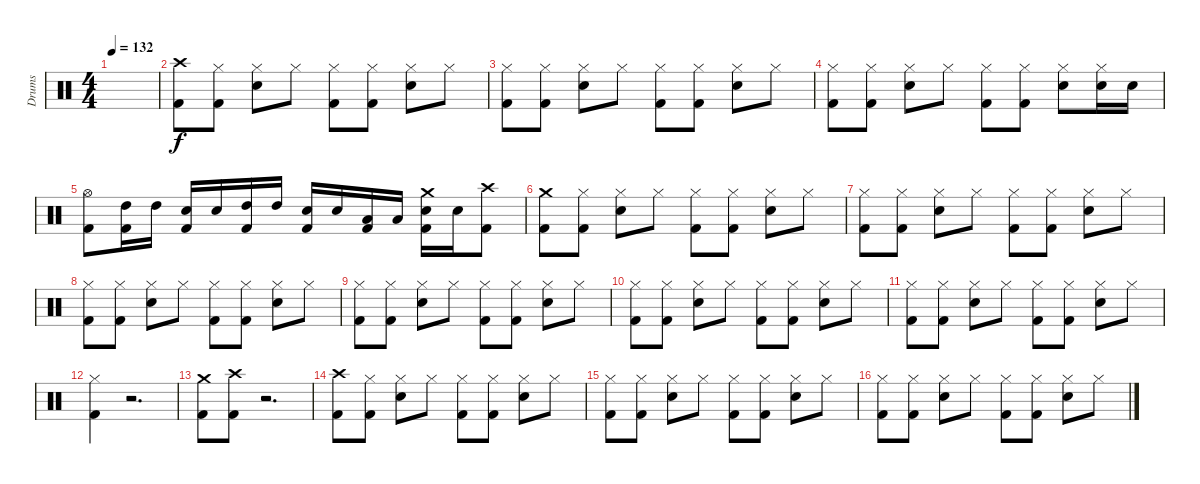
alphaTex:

\track ("Drums" "Drums") {instrument percussion}
\staff {score}
\articulation defaults
\ts (4 4)
\tempo 132
\clef neutral
\ks c
|
("Kick (hit) 2" "Crash high (hit)").8 ("Kick (hit) 2" "Hi-Hat (closed)").8 ("Snare (hit) 2" "Hi-Hat (closed)").8 "Hi-Hat (closed)".8 ("Kick (hit) 2" "Hi-Hat (closed)").8 ("Kick (hit) 2" "Hi-Hat (closed)").8 ("Snare (hit) 2" "Hi-Hat (closed)").8 "Hi-Hat (closed)".8 |
("Kick (hit) 2" "Hi-Hat (closed)").8 ("Kick (hit) 2" "Hi-Hat (closed)").8 ("Snare (hit) 2" "Hi-Hat (closed)").8 "Hi-Hat (closed)".8 ("Kick (hit) 2" "Hi-Hat (closed)").8 ("Kick (hit) 2" "Hi-Hat (closed)").8 ("Snare (hit) 2" "Hi-Hat (closed)").8 "Hi-Hat (closed)".8 |
("Kick (hit) 2" "Hi-Hat (closed)").8 ("Kick (hit) 2" "Hi-Hat (closed)").8 ("Snare (hit) 2" "Hi-Hat (closed)").8 "Hi-Hat (closed)".8 ("Kick (hit) 2" "Hi-Hat (closed)").8 ("Kick (hit) 2" "Hi-Hat (closed)").8 ("Snare (hit) 2" "Hi-Hat (closed)").8 ("Snare (hit) 2" "Hi-Hat (closed)").16 "Snare (hit) 2".16 |
("Kick (hit) 2" "Hi-Hat (open)").8 ("Kick (hit) 2" "High Tom (hit)").16 "High Tom (hit)".16 ("Kick (hit) 2" "Snare (hit) 2").16 "Snare (hit) 2".16 ("Kick (hit) 2" "High Tom (hit)").16 "High Tom (hit)".16 ("Kick (hit) 2" "Snare (hit) 2").16 "Snare (hit) 2".16 ("Kick (hit) 2" "Low Tom (hit)").16 "Low Tom (hit)".16 ("Kick (hit) 2" "Snare (hit) 2" "Crash medium (hit)").16 "Snare (hit) 2".16 ("Kick (hit) 2" "Crash high (hit)").8 |
("Kick (hit) 2" "Crash medium (hit)").8 ("Kick (hit) 2" "Hi-Hat (closed)").8 ("Snare (hit) 2" "Hi-Hat (closed)").8 "Hi-Hat (closed)".8 ("Kick (hit) 2" "Hi-Hat (closed)").8 ("Kick (hit) 2" "Hi-Hat (closed)").8 ("Snare (hit) 2" "Hi-Hat (closed)").8 "Hi-Hat (closed)".8 |
("Kick (hit) 2" "Hi-Hat (closed)").8 ("Kick (hit) 2" "Hi-Hat (closed)").8 ("Snare (hit) 2" "Hi-Hat (closed)").8 "Hi-Hat (closed)".8 ("Kick (hit) 2" "Hi-Hat (closed)").8 ("Kick (hit) 2" "Hi-Hat (closed)").8 ("Snare (hit) 2" "Hi-Hat (closed)").8 "Hi-Hat (closed)".8 |
("Kick (hit) 2" "Hi-Hat (closed)").8 ("Kick (hit) 2" "Hi-Hat (closed)").8 ("Snare (hit) 2" "Hi-Hat (closed)").8 "Hi-Hat (closed)".8 ("Kick (hit) 2" "Hi-Hat (closed)").8 ("Kick (hit) 2" "Hi-Hat (closed)").8 ("Snare (hit) 2" "Hi-Hat (closed)").8 "Hi-Hat (closed)".8 |
("Kick (hit) 2" "Hi-Hat (closed)").8 ("Kick (hit) 2" "Hi-Hat (closed)").8 ("Snare (hit) 2" "Hi-Hat (closed)").8 "Hi-Hat (closed)".8 ("Kick (hit) 2" "Hi-Hat (closed)").8 ("Kick (hit) 2" "Hi-Hat (closed)").8 ("Snare (hit) 2" "Hi-Hat (closed)").8 "Hi-Hat (closed)".8 |
("Kick (hit) 2" "Hi-Hat (closed)").8 ("Kick (hit) 2" "Hi-Hat (closed)").8 ("Snare (hit) 2" "Hi-Hat (closed)").8 "Hi-Hat (closed)".8 ("Kick (hit) 2" "Hi-Hat (closed)").8 ("Kick (hit) 2" "Hi-Hat (closed)").8 ("Snare (hit) 2" "Hi-Hat (closed)").8 "Hi-Hat (closed)".8 |
("Kick (hit) 2" "Hi-Hat (closed)").8 ("Kick (hit) 2" "Hi-Hat (closed)").8 ("Snare (hit) 2" "Hi-Hat (closed)").8 "Hi-Hat (closed)".8 ("Kick (hit) 2" "Hi-Hat (closed)").8 ("Kick (hit) 2" "Hi-Hat (closed)").8 ("Snare (hit) 2" "Hi-Hat (closed)").8 "Hi-Hat (closed)".8 |
("Kick (hit) 2" "Hi-Hat (closed)").4 r.2{d} |
("Kick (hit) 2" "Crash medium (hit)").8 ("Kick (hit) 2" "Crash high (hit)").8 r.2{d} |
("Kick (hit) 2" "Crash high (hit)").8 ("Kick (hit) 2" "Hi-Hat (closed)").8 ("Snare (hit) 2" "Hi-Hat (closed)").8 "Hi-Hat (closed)".8 ("Kick (hit) 2" "Hi-Hat (closed)").8 ("Kick (hit) 2" "Hi-Hat (closed)").8 ("Snare (hit) 2" "Hi-Hat (closed)").8 "Hi-Hat (closed)".8 |
("Kick (hit) 2" "Hi-Hat (closed)").8 ("Kick (hit) 2" "Hi-Hat (closed)").8 ("Snare (hit) 2" "Hi-Hat (closed)").8 "Hi-Hat (closed)".8 ("Kick (hit) 2" "Hi-Hat (closed)").8 ("Kick (hit) 2" "Hi-Hat (closed)").8 ("Snare (hit) 2" "Hi-Hat (closed)").8 "Hi-Hat (closed)".8 |
("Kick (hit) 2" "Hi-Hat (closed)").8 ("Kick (hit) 2" "Hi-Hat (closed)").8 ("Snare (hit) 2" "Hi-Hat (closed)").8 "Hi-Hat (closed)".8 ("Kick (hit) 2" "Hi-Hat (closed)").8 ("Kick (hit) 2" "Hi-Hat (closed)").8 ("Snare (hit) 2" "Hi-Hat (closed)").8 "Hi-Hat (closed)".8
